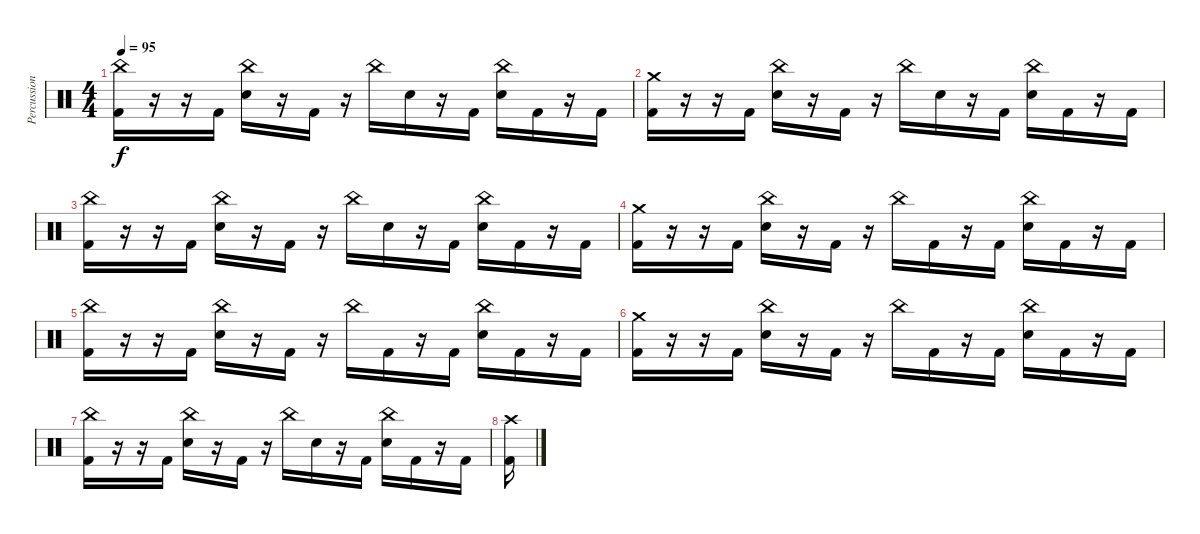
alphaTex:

\track ("Percussion" "Percussion") {instrument percussion}
\staff {score}
\articulation defaults
\ts (4 4)
\tempo 95
\clef neutral
\ks c
("China (hit)" "Kick (hit) 2").16{dy f} r.16 r.16 "Kick (hit) 2".16 ("China (hit)" "Electric Snare (hit)").16 r.16 "Kick (hit) 2".16 r.16 "China (hit)".16 "Electric Snare (hit)".16 r.16 "Kick (hit) 2".16 ("China (hit)" "Electric Snare (hit)").16 "Kick (hit) 2".16 r.16 "Kick (hit) 2".16 |
("Crash medium (hit)" "Kick (hit) 2").16 r.16 r.16 "Kick (hit) 2".16 ("China (hit)" "Electric Snare (hit)").16 r.16 "Kick (hit) 2".16 r.16 "China (hit)".16 "Electric Snare (hit)".16 r.16 "Kick (hit) 2".16 ("China (hit)" "Electric Snare (hit)").16 "Kick (hit) 2".16 r.16 "Kick (hit) 2".16 |
("China (hit)" "Kick (hit) 2").16 r.16 r.16 "Kick (hit) 2".16 ("China (hit)" "Electric Snare (hit)").16 r.16 "Kick (hit) 2".16 r.16 "China (hit)".16 "Electric Snare (hit)".16 r.16 "Kick (hit) 2".16 ("China (hit)" "Electric Snare (hit)").16 "Kick (hit) 2".16 r.16 "Kick (hit) 2".16 |
("Crash medium (hit)" "Kick (hit) 2").16 r.16 r.16 "Kick (hit) 2".16 ("China (hit)" "Electric Snare (hit)").16 r.16 "Kick (hit) 2".16 r.16 "China (hit)".16 "Kick (hit) 2".16 r.16 "Kick (hit) 2".16 ("China (hit)" "Electric Snare (hit)").16 "Kick (hit) 2".16 r.16 "Kick (hit) 2".16 |
("China (hit)" "Kick (hit) 2").16 r.16 r.16 "Kick (hit) 2".16 ("China (hit)" "Electric Snare (hit)").16 r.16 "Kick (hit) 2".16 r.16 "China (hit)".16 "Kick (hit) 2".16 r.16 "Kick (hit) 2".16 ("China (hit)" "Electric Snare (hit)").16 "Kick (hit) 2".16 r.16 "Kick (hit) 2".16 |
("Crash medium (hit)" "Kick (hit) 2").16 r.16 r.16 "Kick (hit) 2".16 ("China (hit)" "Electric Snare (hit)").16 r.16 "Kick (hit) 2".16 r.16 "China (hit)".16 "Kick (hit) 2".16 r.16 "Kick (hit) 2".16 ("China (hit)" "Electric Snare (hit)").16 "Kick (hit) 2".16 r.16 "Kick (hit) 2".16 |
("China (hit)" "Kick (hit) 2").16 r.16 r.16 "Kick (hit) 2".16 ("China (hit)" "Electric Snare (hit)").16 r.16 "Kick (hit) 2".16 r.16 "China (hit)".16 "Electric Snare (hit)".16 r.16 "Kick (hit) 2".16 ("China (hit)" "Electric Snare (hit)").16 "Kick (hit) 2".16 r.16 "Kick (hit) 2".16 |
("Crash high (hit)" "Kick (hit) 2").16
